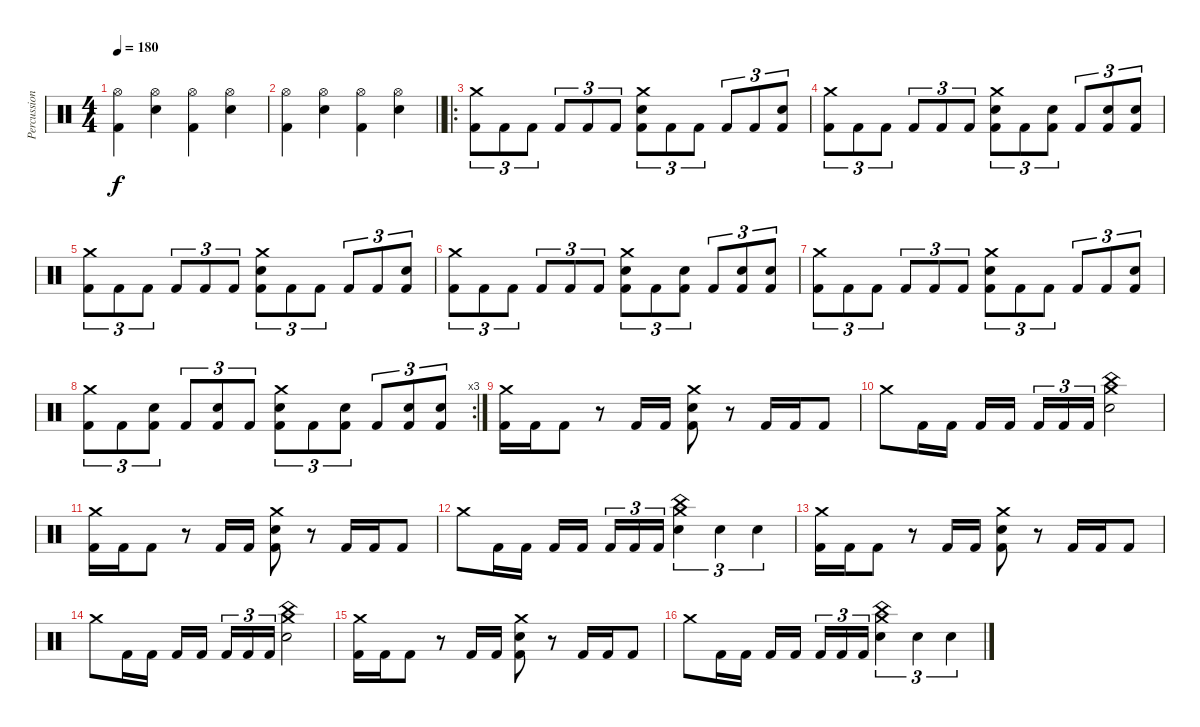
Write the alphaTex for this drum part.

\track ("Percussion" "Percussion") {instrument percussion}
\staff {score}
\articulation defaults
\ts (4 4)
\tempo 180
\clef neutral
\ks c
("Hi-Hat (open)" "Kick (hit) 2").4{dy f} ("Hi-Hat (open)" "Electric Snare (hit)").4 ("Hi-Hat (open)" "Kick (hit) 2").4 ("Hi-Hat (open)" "Electric Snare (hit)").4 |
\barLineRight lightlight
("Hi-Hat (open)" "Kick (hit) 2").4 ("Hi-Hat (open)" "Electric Snare (hit)").4 ("Hi-Hat (open)" "Kick (hit) 2").4 ("Hi-Hat (open)" "Electric Snare (hit)").4 |
\ro
("Crash medium (hit)" "Kick (hit) 2").8{tu (3 2)} "Kick (hit) 2".8{tu (3 2)} "Kick (hit) 2".8{tu (3 2)} "Kick (hit) 2".8{tu (3 2)} "Kick (hit) 2".8{tu (3 2)} "Kick (hit) 2".8{tu (3 2)} ("Crash medium (hit)" "Electric Snare (hit)" "Kick (hit) 2").8{tu (3 2)} "Kick (hit) 2".8{tu (3 2)} "Kick (hit) 2".8{tu (3 2)} "Kick (hit) 2".8{tu (3 2)} "Kick (hit) 2".8{tu (3 2)} ("Electric Snare (hit)" "Kick (hit) 2").8{tu (3 2)} |
("Crash medium (hit)" "Kick (hit) 2").8{tu (3 2)} "Kick (hit) 2".8{tu (3 2)} "Kick (hit) 2".8{tu (3 2)} "Kick (hit) 2".8{tu (3 2)} "Kick (hit) 2".8{tu (3 2)} "Kick (hit) 2".8{tu (3 2)} ("Crash medium (hit)" "Electric Snare (hit)" "Kick (hit) 2").8{tu (3 2)} "Kick (hit) 2".8{tu (3 2)} ("Electric Snare (hit)" "Kick (hit) 2").8{tu (3 2)} "Kick (hit) 2".8{tu (3 2)} ("Electric Snare (hit)" "Kick (hit) 2").8{tu (3 2)} ("Electric Snare (hit)" "Kick (hit) 2").8{tu (3 2)} |
("Crash medium (hit)" "Kick (hit) 2").8{tu (3 2)} "Kick (hit) 2".8{tu (3 2)} "Kick (hit) 2".8{tu (3 2)} "Kick (hit) 2".8{tu (3 2)} "Kick (hit) 2".8{tu (3 2)} "Kick (hit) 2".8{tu (3 2)} ("Crash medium (hit)" "Electric Snare (hit)" "Kick (hit) 2").8{tu (3 2)} "Kick (hit) 2".8{tu (3 2)} "Kick (hit) 2".8{tu (3 2)} "Kick (hit) 2".8{tu (3 2)} "Kick (hit) 2".8{tu (3 2)} ("Electric Snare (hit)" "Kick (hit) 2").8{tu (3 2)} |
("Crash medium (hit)" "Kick (hit) 2").8{tu (3 2)} "Kick (hit) 2".8{tu (3 2)} "Kick (hit) 2".8{tu (3 2)} "Kick (hit) 2".8{tu (3 2)} "Kick (hit) 2".8{tu (3 2)} "Kick (hit) 2".8{tu (3 2)} ("Crash medium (hit)" "Electric Snare (hit)" "Kick (hit) 2").8{tu (3 2)} "Kick (hit) 2".8{tu (3 2)} ("Electric Snare (hit)" "Kick (hit) 2").8{tu (3 2)} "Kick (hit) 2".8{tu (3 2)} ("Electric Snare (hit)" "Kick (hit) 2").8{tu (3 2)} ("Electric Snare (hit)" "Kick (hit) 2").8{tu (3 2)} |
("Crash medium (hit)" "Kick (hit) 2").8{tu (3 2)} "Kick (hit) 2".8{tu (3 2)} "Kick (hit) 2".8{tu (3 2)} "Kick (hit) 2".8{tu (3 2)} "Kick (hit) 2".8{tu (3 2)} "Kick (hit) 2".8{tu (3 2)} ("Crash medium (hit)" "Electric Snare (hit)" "Kick (hit) 2").8{tu (3 2)} "Kick (hit) 2".8{tu (3 2)} "Kick (hit) 2".8{tu (3 2)} "Kick (hit) 2".8{tu (3 2)} "Kick (hit) 2".8{tu (3 2)} ("Electric Snare (hit)" "Kick (hit) 2").8{tu (3 2)} |
\rc 3
("Crash medium (hit)" "Kick (hit) 2").8{tu (3 2)} "Kick (hit) 2".8{tu (3 2)} ("Electric Snare (hit)" "Kick (hit) 2").8{tu (3 2)} "Kick (hit) 2".8{tu (3 2)} ("Electric Snare (hit)" "Kick (hit) 2").8{tu (3 2)} "Kick (hit) 2".8{tu (3 2)} ("Crash medium (hit)" "Electric Snare (hit)" "Kick (hit) 2").8{tu (3 2)} "Kick (hit) 2".8{tu (3 2)} ("Electric Snare (hit)" "Kick (hit) 2").8{tu (3 2)} "Kick (hit) 2".8{tu (3 2)} ("Electric Snare (hit)" "Kick (hit) 2").8{tu (3 2)} ("Electric Snare (hit)" "Kick (hit) 2").8{tu (3 2)} |
("Crash medium (hit)" "Kick (hit) 2").16 "Kick (hit) 2".16 "Kick (hit) 2".8 r.8 "Kick (hit) 2".16 "Kick (hit) 2".16 ("Crash medium (hit)" "Electric Snare (hit)" "Kick (hit) 2").8 r.8 "Kick (hit) 2".16 "Kick (hit) 2".16 "Kick (hit) 2".8 |
"Crash medium (hit)".8 "Kick (hit) 2".16 "Kick (hit) 2".16 "Kick (hit) 2".16 "Kick (hit) 2".16{beam splitsecondary} "Kick (hit) 2".16{tu (3 2)} "Kick (hit) 2".16{tu (3 2)} "Kick (hit) 2".16{tu (3 2)} ("Crash medium (hit)" "China (hit)" "Electric Snare (hit)").2 |
("Crash medium (hit)" "Kick (hit) 2").16 "Kick (hit) 2".16 "Kick (hit) 2".8 r.8 "Kick (hit) 2".16 "Kick (hit) 2".16 ("Crash medium (hit)" "Electric Snare (hit)" "Kick (hit) 2").8 r.8 "Kick (hit) 2".16 "Kick (hit) 2".16 "Kick (hit) 2".8 |
"Crash medium (hit)".8 "Kick (hit) 2".16 "Kick (hit) 2".16 "Kick (hit) 2".16 "Kick (hit) 2".16{beam splitsecondary} "Kick (hit) 2".16{tu (3 2)} "Kick (hit) 2".16{tu (3 2)} "Kick (hit) 2".16{tu (3 2)} ("Crash medium (hit)" "China (hit)" "Electric Snare (hit)").4{tu (3 2)} "Electric Snare (hit)".4{tu (3 2)} "Electric Snare (hit)".4{tu (3 2)} |
("Crash medium (hit)" "Kick (hit) 2").16 "Kick (hit) 2".16 "Kick (hit) 2".8 r.8 "Kick (hit) 2".16 "Kick (hit) 2".16 ("Crash medium (hit)" "Electric Snare (hit)" "Kick (hit) 2").8 r.8 "Kick (hit) 2".16 "Kick (hit) 2".16 "Kick (hit) 2".8 |
"Crash medium (hit)".8 "Kick (hit) 2".16 "Kick (hit) 2".16 "Kick (hit) 2".16 "Kick (hit) 2".16{beam splitsecondary} "Kick (hit) 2".16{tu (3 2)} "Kick (hit) 2".16{tu (3 2)} "Kick (hit) 2".16{tu (3 2)} ("Crash medium (hit)" "China (hit)" "Electric Snare (hit)").2 |
("Crash medium (hit)" "Kick (hit) 2").16 "Kick (hit) 2".16 "Kick (hit) 2".8 r.8 "Kick (hit) 2".16 "Kick (hit) 2".16 ("Crash medium (hit)" "Electric Snare (hit)" "Kick (hit) 2").8 r.8 "Kick (hit) 2".16 "Kick (hit) 2".16 "Kick (hit) 2".8 |
"Crash medium (hit)".8 "Kick (hit) 2".16 "Kick (hit) 2".16 "Kick (hit) 2".16 "Kick (hit) 2".16{beam splitsecondary} "Kick (hit) 2".16{tu (3 2)} "Kick (hit) 2".16{tu (3 2)} "Kick (hit) 2".16{tu (3 2)} ("Crash medium (hit)" "China (hit)" "Electric Snare (hit)").4{tu (3 2)} "Electric Snare (hit)".4{tu (3 2)} "Electric Snare (hit)".4{tu (3 2)}
